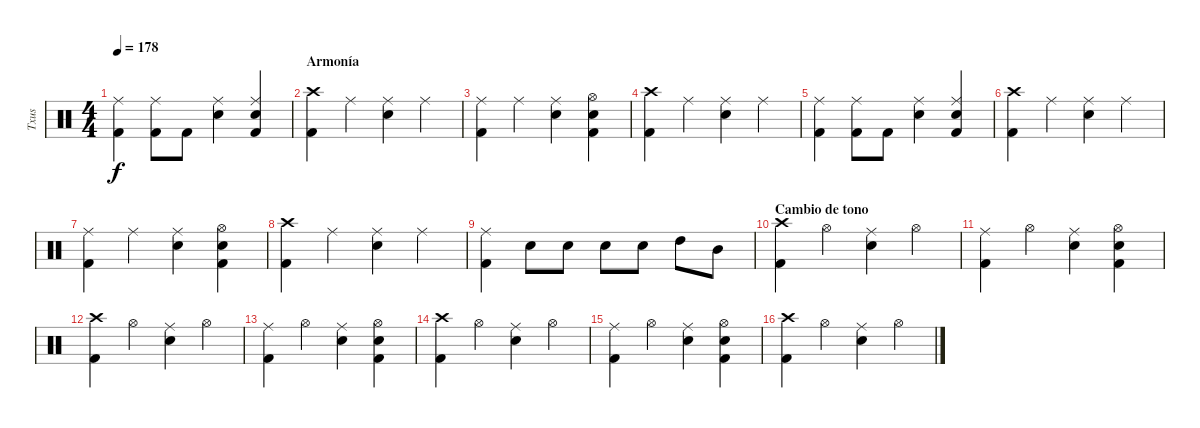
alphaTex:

\track ("Txus" "Txus") {instrument percussion}
\staff {score}
\articulation defaults
\ts (4 4)
\tempo 178
\clef neutral
\ks c
("Kick (hit) 2" "Ride (middle)").4{dy f} ("Kick (hit) 2" "Ride (middle)").8 "Kick (hit) 2".8 ("Ride (middle)" "Electric Snare (hit)").4 ("Kick (hit) 2" "Electric Snare (hit)" "Ride (middle)").4 |
\section ("" "Armonía")
("Kick (hit) 2" "Crash high (hit)").4 "Ride (middle)".4 ("Ride (middle)" "Electric Snare (hit)").4 "Ride (middle)".4 |
("Kick (hit) 2" "Ride (middle)").4 "Ride (middle)".4 ("Ride (middle)" "Electric Snare (hit)").4 ("Kick (hit) 2" "Hi-Hat (open)" "Electric Snare (hit)").4 |
("Kick (hit) 2" "Crash high (hit)").4 "Ride (middle)".4 ("Ride (middle)" "Electric Snare (hit)").4 "Ride (middle)".4 |
("Kick (hit) 2" "Ride (middle)").4 ("Kick (hit) 2" "Ride (middle)").8 "Kick (hit) 2".8 ("Ride (middle)" "Electric Snare (hit)").4 ("Kick (hit) 2" "Electric Snare (hit)" "Ride (middle)").4 |
("Kick (hit) 2" "Crash high (hit)").4 "Ride (middle)".4 ("Ride (middle)" "Electric Snare (hit)").4 "Ride (middle)".4 |
("Kick (hit) 2" "Ride (middle)").4 "Ride (middle)".4 ("Ride (middle)" "Electric Snare (hit)").4 ("Kick (hit) 2" "Hi-Hat (open)" "Electric Snare (hit)").4 |
("Kick (hit) 2" "Crash high (hit)").4 "Ride (middle)".4 ("Ride (middle)" "Electric Snare (hit)").4 "Ride (middle)".4 |
("Kick (hit) 2" "Ride (middle)").4 "Electric Snare (hit)".8 "Electric Snare (hit)".8 "Electric Snare (hit)".8 "Electric Snare (hit)".8 "High Tom (hit)".8 "Mid Tom (hit)".8 |
\section ("" "Cambio de tono")
("Kick (hit) 2" "Crash high (hit)").4 "Hi-Hat (open)".4 ("Ride (middle)" "Electric Snare (hit)").4 "Hi-Hat (open)".4 |
("Kick (hit) 2" "Ride (middle)").4 "Hi-Hat (open)".4 ("Ride (middle)" "Electric Snare (hit)").4 ("Kick (hit) 2" "Hi-Hat (open)" "Electric Snare (hit)").4 |
("Kick (hit) 2" "Crash high (hit)").4 "Hi-Hat (open)".4 ("Ride (middle)" "Electric Snare (hit)").4 "Hi-Hat (open)".4 |
("Kick (hit) 2" "Ride (middle)").4 "Hi-Hat (open)".4 ("Ride (middle)" "Electric Snare (hit)").4 ("Kick (hit) 2" "Hi-Hat (open)" "Electric Snare (hit)").4 |
("Kick (hit) 2" "Crash high (hit)").4 "Hi-Hat (open)".4 ("Ride (middle)" "Electric Snare (hit)").4 "Hi-Hat (open)".4 |
("Kick (hit) 2" "Ride (middle)").4 "Hi-Hat (open)".4 ("Ride (middle)" "Electric Snare (hit)").4 ("Kick (hit) 2" "Hi-Hat (open)" "Electric Snare (hit)").4 |
("Kick (hit) 2" "Crash high (hit)").4 "Hi-Hat (open)".4 ("Ride (middle)" "Electric Snare (hit)").4 "Hi-Hat (open)".4
